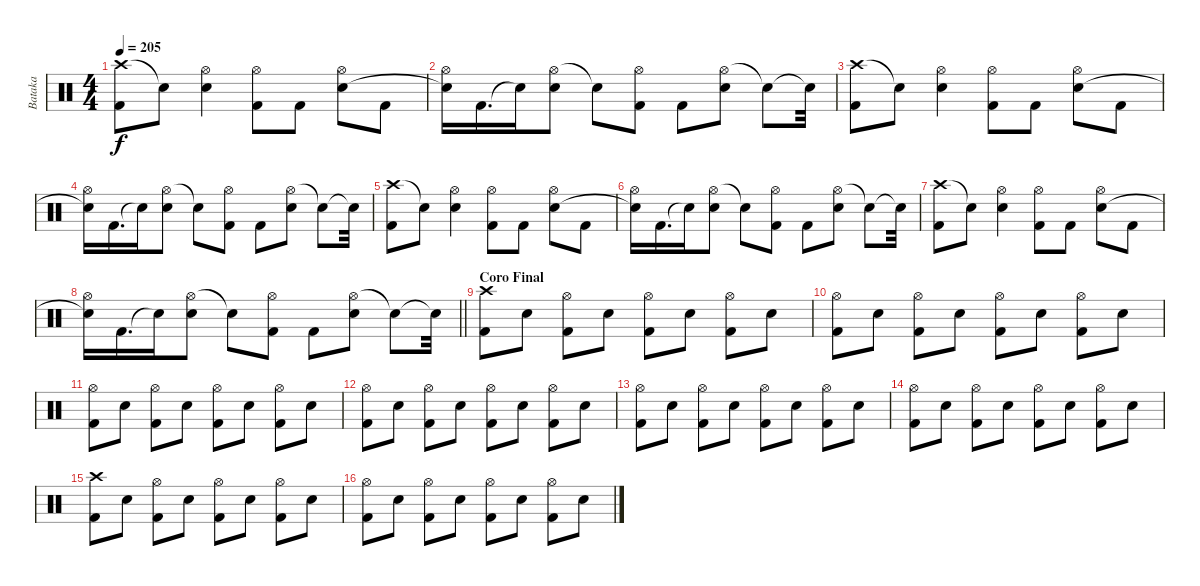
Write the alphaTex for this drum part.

\track ("Bataka" "Bataka") {instrument percussion}
\staff {score}
\articulation defaults
\ts (4 4)
\tempo 205
\clef neutral
\ks c
("Crash high (hit)" "Kick (hit) 2").8{dy f} "Snare (hit)"{t}.8 ("Hi-Hat (open)" "Snare (hit) 2").4 ("Hi-Hat (open)" "Kick (hit) 2").8 "Kick (hit) 2".8 ("Hi-Hat (open)" "Snare (hit) 2").8 "Kick (hit) 2".8 |
("Hi-Hat (open)" "Snare (hit)"{t}).16 "Kick (hit) 2".16{d} "Snare (hit)"{t}.16 ("Hi-Hat (open)" "Snare (hit) 2").8 "Snare (hit)"{t}.8 ("Hi-Hat (open)" "Kick (hit) 2").8 "Kick (hit) 2".8 ("Hi-Hat (open)" "Snare (hit) 2").8 "Snare (hit)"{t}.8 "Snare (hit)"{t}.32 |
("Crash high (hit)" "Kick (hit) 2").8 "Snare (hit)"{t}.8 ("Hi-Hat (open)" "Snare (hit) 2").4 ("Hi-Hat (open)" "Kick (hit) 2").8 "Kick (hit) 2".8 ("Hi-Hat (open)" "Snare (hit) 2").8 "Kick (hit) 2".8 |
("Hi-Hat (open)" "Snare (hit)"{t}).16 "Kick (hit) 2".16{d} "Snare (hit)"{t}.16 ("Hi-Hat (open)" "Snare (hit) 2").8 "Snare (hit)"{t}.8 ("Hi-Hat (open)" "Kick (hit) 2").8 "Kick (hit) 2".8 ("Hi-Hat (open)" "Snare (hit) 2").8 "Snare (hit)"{t}.8 "Snare (hit)"{t}.32 |
("Crash high (hit)" "Kick (hit) 2").8 "Snare (hit)"{t}.8 ("Hi-Hat (open)" "Snare (hit) 2").4 ("Hi-Hat (open)" "Kick (hit) 2").8 "Kick (hit) 2".8 ("Hi-Hat (open)" "Snare (hit) 2").8 "Kick (hit) 2".8 |
("Hi-Hat (open)" "Snare (hit)"{t}).16 "Kick (hit) 2".16{d} "Snare (hit)"{t}.16 ("Hi-Hat (open)" "Snare (hit) 2").8 "Snare (hit)"{t}.8 ("Hi-Hat (open)" "Kick (hit) 2").8 "Kick (hit) 2".8 ("Hi-Hat (open)" "Snare (hit) 2").8 "Snare (hit)"{t}.8 "Snare (hit)"{t}.32 |
("Crash high (hit)" "Kick (hit) 2").8 "Snare (hit)"{t}.8 ("Hi-Hat (open)" "Snare (hit) 2").4 ("Hi-Hat (open)" "Kick (hit) 2").8 "Kick (hit) 2".8 ("Hi-Hat (open)" "Snare (hit) 2").8 "Kick (hit) 2".8 |
\barLineRight lightlight
("Hi-Hat (open)" "Snare (hit)"{t}).16 "Kick (hit) 2".16{d} "Snare (hit)"{t}.16 ("Hi-Hat (open)" "Snare (hit) 2").8 "Snare (hit)"{t}.8 ("Hi-Hat (open)" "Kick (hit) 2").8 "Kick (hit) 2".8 ("Hi-Hat (open)" "Snare (hit) 2").8 "Snare (hit)"{t}.8 "Snare (hit)"{t}.32 |
\section ("" "Coro Final")
("Crash high (hit)" "Kick (hit) 2").8 "Snare (hit) 2".8 ("Hi-Hat (open)" "Kick (hit) 2").8 "Snare (hit) 2".8 ("Hi-Hat (open)" "Kick (hit) 2").8 "Snare (hit) 2".8 ("Hi-Hat (open)" "Kick (hit) 2").8 "Snare (hit) 2".8 |
("Hi-Hat (open)" "Kick (hit) 2").8 "Snare (hit) 2".8 ("Hi-Hat (open)" "Kick (hit) 2").8 "Snare (hit) 2".8 ("Hi-Hat (open)" "Kick (hit) 2").8 "Snare (hit) 2".8 ("Hi-Hat (open)" "Kick (hit) 2").8 "Snare (hit) 2".8 |
("Hi-Hat (open)" "Kick (hit) 2").8 "Snare (hit) 2".8 ("Hi-Hat (open)" "Kick (hit) 2").8 "Snare (hit) 2".8 ("Hi-Hat (open)" "Kick (hit) 2").8 "Snare (hit) 2".8 ("Hi-Hat (open)" "Kick (hit) 2").8 "Snare (hit) 2".8 |
("Hi-Hat (open)" "Kick (hit) 2").8 "Snare (hit) 2".8 ("Hi-Hat (open)" "Kick (hit) 2").8 "Snare (hit) 2".8 ("Hi-Hat (open)" "Kick (hit) 2").8 "Snare (hit) 2".8 ("Hi-Hat (open)" "Kick (hit) 2").8 "Snare (hit) 2".8 |
("Hi-Hat (open)" "Kick (hit) 2").8 "Snare (hit) 2".8 ("Hi-Hat (open)" "Kick (hit) 2").8 "Snare (hit) 2".8 ("Hi-Hat (open)" "Kick (hit) 2").8 "Snare (hit) 2".8 ("Hi-Hat (open)" "Kick (hit) 2").8 "Snare (hit) 2".8 |
("Hi-Hat (open)" "Kick (hit) 2").8 "Snare (hit) 2".8 ("Hi-Hat (open)" "Kick (hit) 2").8 "Snare (hit) 2".8 ("Hi-Hat (open)" "Kick (hit) 2").8 "Snare (hit) 2".8 ("Hi-Hat (open)" "Kick (hit) 2").8 "Snare (hit) 2".8 |
("Crash high (hit)" "Kick (hit) 2").8 "Snare (hit) 2".8 ("Hi-Hat (open)" "Kick (hit) 2").8 "Snare (hit) 2".8 ("Hi-Hat (open)" "Kick (hit) 2").8 "Snare (hit) 2".8 ("Hi-Hat (open)" "Kick (hit) 2").8 "Snare (hit) 2".8 |
("Hi-Hat (open)" "Kick (hit) 2").8 "Snare (hit) 2".8 ("Hi-Hat (open)" "Kick (hit) 2").8 "Snare (hit) 2".8 ("Hi-Hat (open)" "Kick (hit) 2").8 "Snare (hit) 2".8 ("Hi-Hat (open)" "Kick (hit) 2").8 "Snare (hit) 2".8
